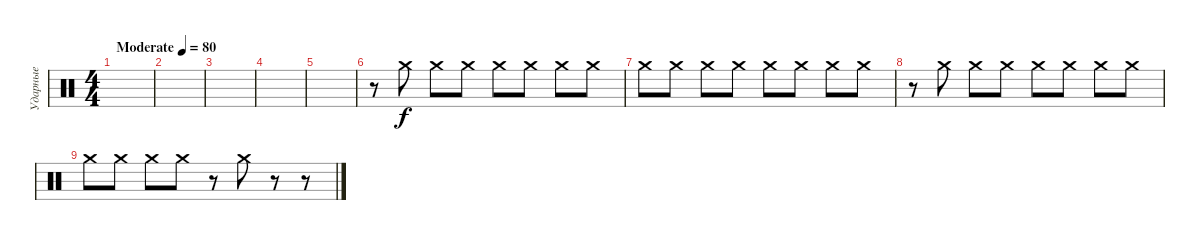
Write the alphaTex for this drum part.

\track ("Ударные" "Ударные") {instrument percussion}
\staff {score}
\articulation defaults
\ts (4 4)
\tempo (80 "Moderate")
\clef neutral
\ks c
|
|
|
|
|
r.8 "Crash medium (hit)".8 "Crash medium (hit)".8 "Crash medium (hit)".8 "Crash medium (hit)".8 "Crash medium (hit)".8 "Crash medium (hit)".8 "Crash medium (hit)".8 |
"Crash medium (hit)".8 "Crash medium (hit)".8 "Crash medium (hit)".8 "Crash medium (hit)".8 "Crash medium (hit)".8 "Crash medium (hit)".8 "Crash medium (hit)".8 "Crash medium (hit)".8 |
r.8 "Crash medium (hit)".8 "Crash medium (hit)".8 "Crash medium (hit)".8 "Crash medium (hit)".8 "Crash medium (hit)".8 "Crash medium (hit)".8 "Crash medium (hit)".8 |
"Crash medium (hit)".8 "Crash medium (hit)".8 "Crash medium (hit)".8 "Crash medium (hit)".8 r.8 "Crash medium (hit)".8 r.8 r.8
